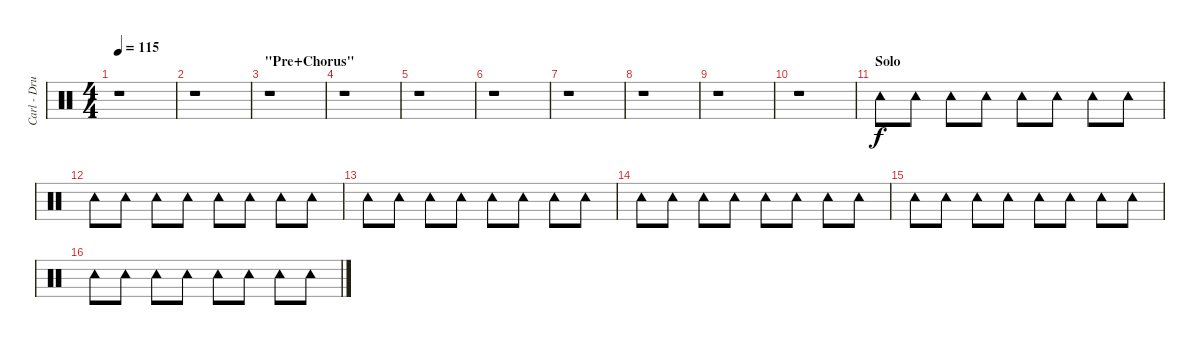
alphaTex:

\track ("Carl - Drums" "Carl - Dru") {instrument percussion}
\staff {score}
\articulation defaults
\ts (4 4)
\tempo 115
\clef neutral
\ks c
r.1{dy f} |
r.1 |
\section ("" "\"Pre+Chorus\"")
r.1 |
r.1 |
r.1 |
r.1 |
r.1 |
r.1 |
r.1 |
r.1 |
\section ("" "Solo")
"Tambourine (hit)".8 "Tambourine (hit)".8 "Tambourine (hit)".8 "Tambourine (hit)".8 "Tambourine (hit)".8 "Tambourine (hit)".8 "Tambourine (hit)".8 "Tambourine (hit)".8 |
"Tambourine (hit)".8 "Tambourine (hit)".8 "Tambourine (hit)".8 "Tambourine (hit)".8 "Tambourine (hit)".8 "Tambourine (hit)".8 "Tambourine (hit)".8 "Tambourine (hit)".8 |
"Tambourine (hit)".8 "Tambourine (hit)".8 "Tambourine (hit)".8 "Tambourine (hit)".8 "Tambourine (hit)".8 "Tambourine (hit)".8 "Tambourine (hit)".8 "Tambourine (hit)".8 |
"Tambourine (hit)".8 "Tambourine (hit)".8 "Tambourine (hit)".8 "Tambourine (hit)".8 "Tambourine (hit)".8 "Tambourine (hit)".8 "Tambourine (hit)".8 "Tambourine (hit)".8 |
"Tambourine (hit)".8 "Tambourine (hit)".8 "Tambourine (hit)".8 "Tambourine (hit)".8 "Tambourine (hit)".8 "Tambourine (hit)".8 "Tambourine (hit)".8 "Tambourine (hit)".8 |
"Tambourine (hit)".8 "Tambourine (hit)".8 "Tambourine (hit)".8 "Tambourine (hit)".8 "Tambourine (hit)".8 "Tambourine (hit)".8 "Tambourine (hit)".8 "Tambourine (hit)".8
